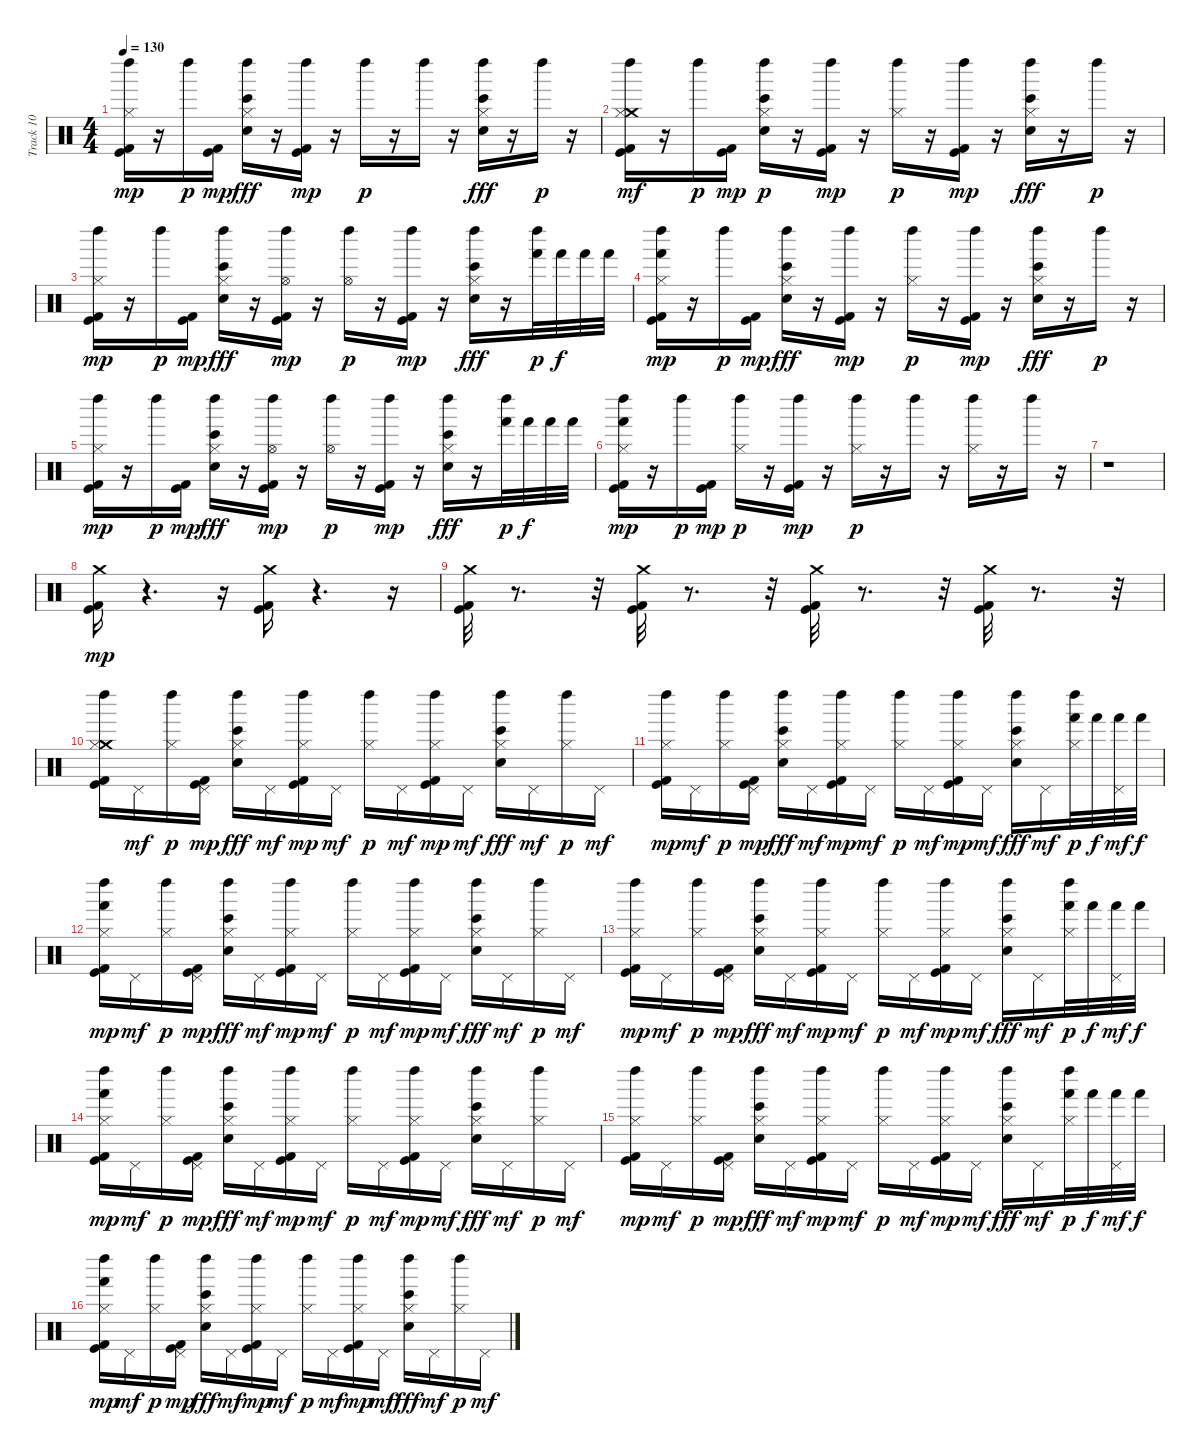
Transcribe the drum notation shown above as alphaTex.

\track ("Track 10" "Track 10") {instrument percussion}
\staff {score}
\articulation defaults
\ts (4 4)
\tempo 130
\clef neutral
\ks c
("Hi-Hat (closed)" "Left Maraca (hit)" "Kick (hit) 2" "Kick (hit)").16{dy mp} r.16 "Left Maraca (hit)".16{dy p} ("Kick (hit) 2" "Kick (hit)").16{dy mp} ("Hi-Hat (closed)" "Left Maraca (hit)" "Hand Clap (hit)" "Bongo High (hit)").16{dy fff} r.16 ("Left Maraca (hit)" "Kick (hit) 2" "Kick (hit)").16{dy mp} r.16 "Left Maraca (hit)".16{dy p} r.16 "Left Maraca (hit)".16 r.16 ("Hi-Hat (closed)" "Left Maraca (hit)" "Hand Clap (hit)" "Bongo High (hit)").16{dy fff} r.16 "Left Maraca (hit)".16{dy p} r.16 |
("Crash medium (hit)" "Left Maraca (hit)" "Kick (hit)" "Kick (hit) 2" "Hi-Hat (closed)").16{dy mf} r.16 "Left Maraca (hit)".16{dy p} ("Kick (hit) 2" "Kick (hit)").16{dy mp} ("Hand Clap (hit)" "Bongo High (hit)" "Hi-Hat (closed)" "Left Maraca (hit)").16{dy p} r.16 ("Left Maraca (hit)" "Kick (hit) 2" "Kick (hit)").16{dy mp} r.16 ("Hi-Hat (closed)" "Left Maraca (hit)").16{dy p} r.16 ("Left Maraca (hit)" "Kick (hit) 2" "Kick (hit)").16{dy mp} r.16 ("Hi-Hat (closed)" "Left Maraca (hit)" "Hand Clap (hit)" "Bongo High (hit)").16{dy fff} r.16 "Left Maraca (hit)".16{dy p} r.16 |
("Hi-Hat (closed)" "Left Maraca (hit)" "Kick (hit) 2" "Kick (hit)").16{dy mp} r.16 "Left Maraca (hit)".16{dy p} ("Kick (hit) 2" "Kick (hit)").16{dy mp} ("Hi-Hat (closed)" "Left Maraca (hit)" "Hand Clap (hit)" "Bongo High (hit)").16{dy fff} r.16 ("Hi-Hat (open)" "Left Maraca (hit)" "Kick (hit) 2" "Kick (hit)").16{dy mp} r.16 ("Hi-Hat (open)" "Left Maraca (hit)").16{dy p} r.16 ("Left Maraca (hit)" "Kick (hit) 2" "Kick (hit)").16{dy mp} r.16 ("Hi-Hat (closed)" "Left Maraca (hit)" "Hand Clap (hit)" "Bongo High (hit)").16{dy fff} r.16 ("Hand (hit)" "Left Maraca (hit)").32{dy p} "Hand (hit)".32{dy f} "Hand (hit)".32 "Hand (hit)".32 |
("Hand (hit)" "Hi-Hat (closed)" "Left Maraca (hit)" "Kick (hit) 2" "Kick (hit)").16{dy mp} r.16 "Left Maraca (hit)".16{dy p} ("Kick (hit) 2" "Kick (hit)").16{dy mp} ("Hi-Hat (closed)" "Left Maraca (hit)" "Hand Clap (hit)" "Bongo High (hit)").16{dy fff} r.16 ("Left Maraca (hit)" "Kick (hit) 2" "Kick (hit)").16{dy mp} r.16 ("Hi-Hat (closed)" "Left Maraca (hit)").16{dy p} r.16 ("Left Maraca (hit)" "Kick (hit) 2" "Kick (hit)").16{dy mp} r.16 ("Hi-Hat (closed)" "Left Maraca (hit)" "Hand Clap (hit)" "Bongo High (hit)").16{dy fff} r.16 "Left Maraca (hit)".16{dy p} r.16 |
("Hi-Hat (closed)" "Left Maraca (hit)" "Kick (hit) 2" "Kick (hit)").16{dy mp} r.16 "Left Maraca (hit)".16{dy p} ("Kick (hit) 2" "Kick (hit)").16{dy mp} ("Hi-Hat (closed)" "Left Maraca (hit)" "Hand Clap (hit)" "Bongo High (hit)").16{dy fff} r.16 ("Hi-Hat (open)" "Left Maraca (hit)" "Kick (hit) 2" "Kick (hit)").16{dy mp} r.16 ("Hi-Hat (open)" "Left Maraca (hit)").16{dy p} r.16 ("Left Maraca (hit)" "Kick (hit) 2" "Kick (hit)").16{dy mp} r.16 ("Hi-Hat (closed)" "Left Maraca (hit)" "Hand Clap (hit)" "Bongo High (hit)").16{dy fff} r.16 ("Hand (hit)" "Left Maraca (hit)").32{dy p} "Hand (hit)".32{dy f} "Hand (hit)".32 "Hand (hit)".32 |
("Hand (hit)" "Hi-Hat (closed)" "Left Maraca (hit)" "Kick (hit) 2" "Kick (hit)").16{dy mp} r.16 "Left Maraca (hit)".16{dy p} ("Kick (hit) 2" "Kick (hit)").16{dy mp} ("Hi-Hat (closed)" "Left Maraca (hit)").16{dy p} r.16 ("Left Maraca (hit)" "Kick (hit) 2" "Kick (hit)").16{dy mp} r.16 ("Hi-Hat (closed)" "Left Maraca (hit)").16{dy p} r.16 "Left Maraca (hit)".16 r.16 ("Hi-Hat (closed)" "Left Maraca (hit)").16 r.16 "Left Maraca (hit)".16 r.16 |
r.1 |
("Kick (hit) 2" "Crash medium (hit)" "Kick (hit)").16{dy mp} r.4{d} r.16 ("Crash medium (hit)" "Kick (hit) 2" "Kick (hit)").16 r.4{d} r.16 |
("Crash medium (hit)" "Kick (hit) 2" "Kick (hit)").32 r.8{d} r.32 ("Crash medium (hit)" "Kick (hit) 2" "Kick (hit)").32 r.8{d} r.32 ("Crash medium (hit)" "Kick (hit) 2" "Kick (hit)").32 r.8{d} r.32 ("Crash medium (hit)" "Kick (hit) 2" "Kick (hit)").32 r.8{d} r.32 |
("Crash medium (hit)" "Hi-Hat (closed)" "Left Maraca (hit)" "Kick (hit) 2" "Kick (hit)").16 "Pedal Hi-Hat (hit)".16{dy mf} ("Hi-Hat (closed)" "Left Maraca (hit)").16{dy p} ("Pedal Hi-Hat (hit)" "Kick (hit) 2" "Kick (hit)").16{dy mp} ("Hi-Hat (closed)" "Left Maraca (hit)" "Hand Clap (hit)" "Bongo High (hit)").16{dy fff} "Pedal Hi-Hat (hit)".16{dy mf} ("Hi-Hat (closed)" "Left Maraca (hit)" "Kick (hit) 2" "Kick (hit)").16{dy mp} "Pedal Hi-Hat (hit)".16{dy mf} ("Hi-Hat (closed)" "Left Maraca (hit)").16{dy p} "Pedal Hi-Hat (hit)".16{dy mf} ("Hi-Hat (closed)" "Left Maraca (hit)" "Kick (hit) 2" "Kick (hit)").16{dy mp} "Pedal Hi-Hat (hit)".16{dy mf} ("Hi-Hat (closed)" "Left Maraca (hit)" "Hand Clap (hit)" "Bongo High (hit)").16{dy fff} "Pedal Hi-Hat (hit)".16{dy mf} ("Hi-Hat (closed)" "Left Maraca (hit)").16{dy p} "Pedal Hi-Hat (hit)".16{dy mf} |
("Hi-Hat (closed)" "Left Maraca (hit)" "Kick (hit) 2" "Kick (hit)").16{dy mp} "Pedal Hi-Hat (hit)".16{dy mf} ("Hi-Hat (closed)" "Left Maraca (hit)").16{dy p} ("Pedal Hi-Hat (hit)" "Kick (hit) 2" "Kick (hit)").16{dy mp} ("Hi-Hat (closed)" "Left Maraca (hit)" "Hand Clap (hit)" "Bongo High (hit)").16{dy fff} "Pedal Hi-Hat (hit)".16{dy mf} ("Hi-Hat (closed)" "Left Maraca (hit)" "Kick (hit) 2" "Kick (hit)").16{dy mp} "Pedal Hi-Hat (hit)".16{dy mf} ("Hi-Hat (closed)" "Left Maraca (hit)").16{dy p} "Pedal Hi-Hat (hit)".16{dy mf} ("Hi-Hat (closed)" "Left Maraca (hit)" "Kick (hit) 2" "Kick (hit)").16{dy mp} "Pedal Hi-Hat (hit)".16{dy mf} ("Hi-Hat (closed)" "Left Maraca (hit)" "Hand Clap (hit)" "Bongo High (hit)").16{dy fff} "Pedal Hi-Hat (hit)".16{dy mf} ("Hi-Hat (closed)" "Hand (hit)" "Left Maraca (hit)").32{dy p} "Hand (hit)".32{dy f} ("Pedal Hi-Hat (hit)" "Hand (hit)").32{dy mf} "Hand (hit)".32{dy f} |
("Hand (hit)" "Hi-Hat (closed)" "Left Maraca (hit)" "Kick (hit) 2" "Kick (hit)").16{dy mp} "Pedal Hi-Hat (hit)".16{dy mf} ("Hi-Hat (closed)" "Left Maraca (hit)").16{dy p} ("Pedal Hi-Hat (hit)" "Kick (hit) 2" "Kick (hit)").16{dy mp} ("Hi-Hat (closed)" "Left Maraca (hit)" "Hand Clap (hit)" "Bongo High (hit)").16{dy fff} "Pedal Hi-Hat (hit)".16{dy mf} ("Hi-Hat (closed)" "Left Maraca (hit)" "Kick (hit) 2" "Kick (hit)").16{dy mp} "Pedal Hi-Hat (hit)".16{dy mf} ("Hi-Hat (closed)" "Left Maraca (hit)").16{dy p} "Pedal Hi-Hat (hit)".16{dy mf} ("Hi-Hat (closed)" "Left Maraca (hit)" "Kick (hit) 2" "Kick (hit)").16{dy mp} "Pedal Hi-Hat (hit)".16{dy mf} ("Hi-Hat (closed)" "Left Maraca (hit)" "Hand Clap (hit)" "Bongo High (hit)").16{dy fff} "Pedal Hi-Hat (hit)".16{dy mf} ("Hi-Hat (closed)" "Left Maraca (hit)").16{dy p} "Pedal Hi-Hat (hit)".16{dy mf} |
("Hi-Hat (closed)" "Left Maraca (hit)" "Kick (hit) 2" "Kick (hit)").16{dy mp} "Pedal Hi-Hat (hit)".16{dy mf} ("Hi-Hat (closed)" "Left Maraca (hit)").16{dy p} ("Pedal Hi-Hat (hit)" "Kick (hit) 2" "Kick (hit)").16{dy mp} ("Hi-Hat (closed)" "Left Maraca (hit)" "Hand Clap (hit)" "Bongo High (hit)").16{dy fff} "Pedal Hi-Hat (hit)".16{dy mf} ("Hi-Hat (closed)" "Left Maraca (hit)" "Kick (hit) 2" "Kick (hit)").16{dy mp} "Pedal Hi-Hat (hit)".16{dy mf} ("Hi-Hat (closed)" "Left Maraca (hit)").16{dy p} "Pedal Hi-Hat (hit)".16{dy mf} ("Hi-Hat (closed)" "Left Maraca (hit)" "Kick (hit) 2" "Kick (hit)").16{dy mp} "Pedal Hi-Hat (hit)".16{dy mf} ("Hi-Hat (closed)" "Left Maraca (hit)" "Hand Clap (hit)" "Bongo High (hit)").16{dy fff} "Pedal Hi-Hat (hit)".16{dy mf} ("Hi-Hat (closed)" "Hand (hit)" "Left Maraca (hit)").32{dy p} "Hand (hit)".32{dy f} ("Pedal Hi-Hat (hit)" "Hand (hit)").32{dy mf} "Hand (hit)".32{dy f} |
("Hand (hit)" "Hi-Hat (closed)" "Left Maraca (hit)" "Kick (hit) 2" "Kick (hit)").16{dy mp} "Pedal Hi-Hat (hit)".16{dy mf} ("Hi-Hat (closed)" "Left Maraca (hit)").16{dy p} ("Pedal Hi-Hat (hit)" "Kick (hit) 2" "Kick (hit)").16{dy mp} ("Hi-Hat (closed)" "Left Maraca (hit)" "Hand Clap (hit)" "Bongo High (hit)").16{dy fff} "Pedal Hi-Hat (hit)".16{dy mf} ("Hi-Hat (closed)" "Left Maraca (hit)" "Kick (hit) 2" "Kick (hit)").16{dy mp} "Pedal Hi-Hat (hit)".16{dy mf} ("Hi-Hat (closed)" "Left Maraca (hit)").16{dy p} "Pedal Hi-Hat (hit)".16{dy mf} ("Hi-Hat (closed)" "Left Maraca (hit)" "Kick (hit) 2" "Kick (hit)").16{dy mp} "Pedal Hi-Hat (hit)".16{dy mf} ("Hi-Hat (closed)" "Left Maraca (hit)" "Hand Clap (hit)" "Bongo High (hit)").16{dy fff} "Pedal Hi-Hat (hit)".16{dy mf} ("Hi-Hat (closed)" "Left Maraca (hit)").16{dy p} "Pedal Hi-Hat (hit)".16{dy mf} |
("Hi-Hat (closed)" "Left Maraca (hit)" "Kick (hit) 2" "Kick (hit)").16{dy mp} "Pedal Hi-Hat (hit)".16{dy mf} ("Hi-Hat (closed)" "Left Maraca (hit)").16{dy p} ("Pedal Hi-Hat (hit)" "Kick (hit) 2" "Kick (hit)").16{dy mp} ("Hi-Hat (closed)" "Left Maraca (hit)" "Hand Clap (hit)" "Bongo High (hit)").16{dy fff} "Pedal Hi-Hat (hit)".16{dy mf} ("Hi-Hat (closed)" "Left Maraca (hit)" "Kick (hit) 2" "Kick (hit)").16{dy mp} "Pedal Hi-Hat (hit)".16{dy mf} ("Hi-Hat (closed)" "Left Maraca (hit)").16{dy p} "Pedal Hi-Hat (hit)".16{dy mf} ("Hi-Hat (closed)" "Left Maraca (hit)" "Kick (hit) 2" "Kick (hit)").16{dy mp} "Pedal Hi-Hat (hit)".16{dy mf} ("Hi-Hat (closed)" "Left Maraca (hit)" "Hand Clap (hit)" "Bongo High (hit)").16{dy fff} "Pedal Hi-Hat (hit)".16{dy mf} ("Hi-Hat (closed)" "Hand (hit)" "Left Maraca (hit)").32{dy p} "Hand (hit)".32{dy f} ("Pedal Hi-Hat (hit)" "Hand (hit)").32{dy mf} "Hand (hit)".32{dy f} |
("Hand (hit)" "Hi-Hat (closed)" "Left Maraca (hit)" "Kick (hit) 2" "Kick (hit)").16{dy mp} "Pedal Hi-Hat (hit)".16{dy mf} ("Hi-Hat (closed)" "Left Maraca (hit)").16{dy p} ("Pedal Hi-Hat (hit)" "Kick (hit) 2" "Kick (hit)").16{dy mp} ("Hi-Hat (closed)" "Left Maraca (hit)" "Hand Clap (hit)" "Bongo High (hit)").16{dy fff} "Pedal Hi-Hat (hit)".16{dy mf} ("Hi-Hat (closed)" "Left Maraca (hit)" "Kick (hit) 2" "Kick (hit)").16{dy mp} "Pedal Hi-Hat (hit)".16{dy mf} ("Hi-Hat (closed)" "Left Maraca (hit)").16{dy p} "Pedal Hi-Hat (hit)".16{dy mf} ("Hi-Hat (closed)" "Left Maraca (hit)" "Kick (hit) 2" "Kick (hit)").16{dy mp} "Pedal Hi-Hat (hit)".16{dy mf} ("Hi-Hat (closed)" "Left Maraca (hit)" "Hand Clap (hit)" "Bongo High (hit)").16{dy fff} "Pedal Hi-Hat (hit)".16{dy mf} ("Hi-Hat (closed)" "Left Maraca (hit)").16{dy p} "Pedal Hi-Hat (hit)".16{dy mf}
